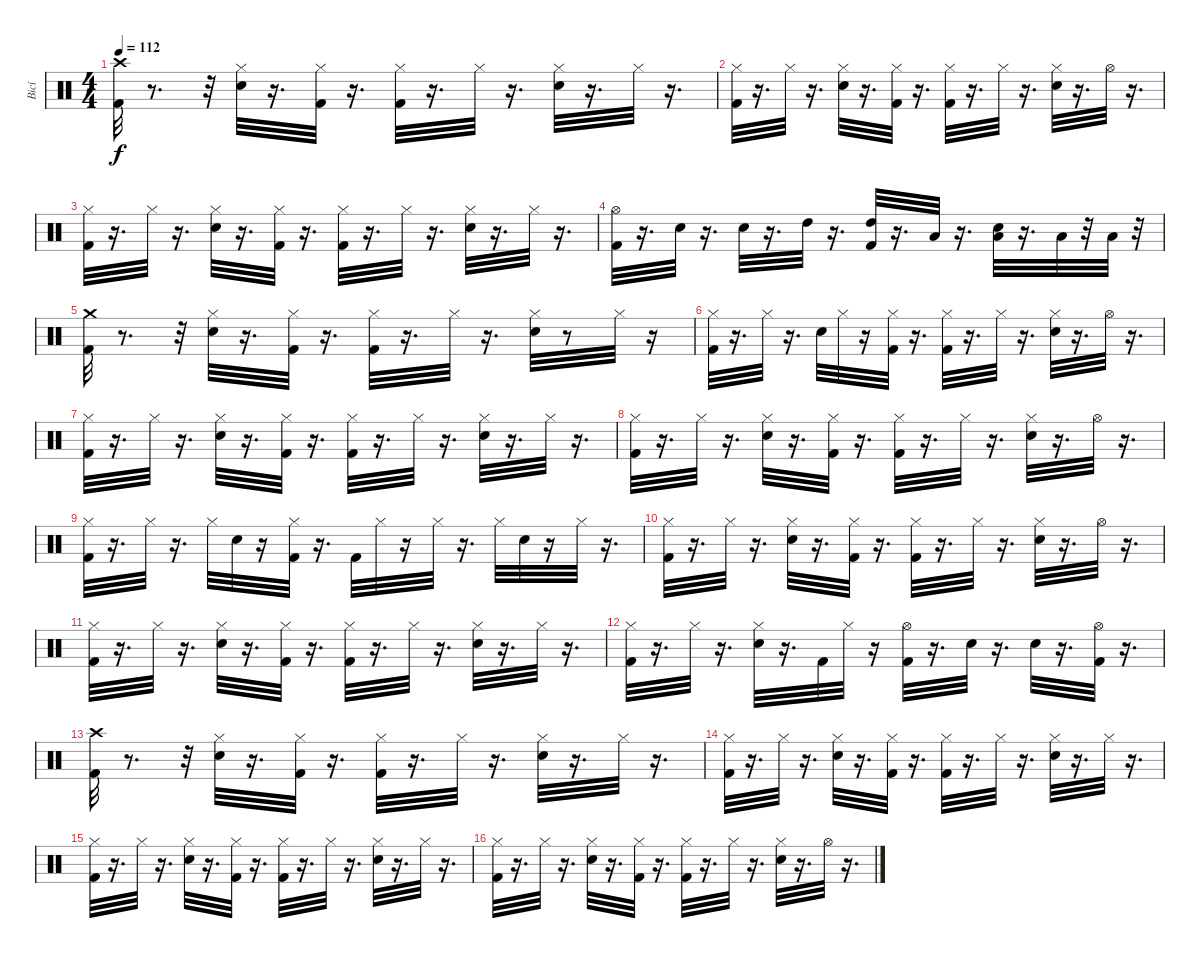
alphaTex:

\track ("Bicí" "Bicí") {instrument percussion}
\staff {score}
\articulation defaults
\ts (4 4)
\tempo 112
\clef neutral
\ks c
("Kick (hit) 2" "Crash high (hit)").32{dy f} r.8{d} r.32 ("Hi-Hat (closed)" "Snare (hit) 2").32 r.16{d} ("Kick (hit) 2" "Hi-Hat (closed)").32 r.16{d} ("Kick (hit) 2" "Hi-Hat (closed)").32 r.16{d} "Hi-Hat (closed)".32 r.16{d} ("Snare (hit) 2" "Hi-Hat (closed)").32 r.16{d} "Hi-Hat (closed)".32 r.16{d} |
("Kick (hit) 2" "Hi-Hat (closed)").32 r.16{d} "Hi-Hat (closed)".32 r.16{d} ("Snare (hit) 2" "Hi-Hat (closed)").32 r.16{d} ("Kick (hit) 2" "Hi-Hat (closed)").32 r.16{d} ("Kick (hit) 2" "Hi-Hat (closed)").32 r.16{d} "Hi-Hat (closed)".32 r.16{d} ("Snare (hit) 2" "Hi-Hat (closed)").32 r.16{d} "Hi-Hat (open)".32 r.16{d} |
("Kick (hit) 2" "Hi-Hat (closed)").32 r.16{d} "Hi-Hat (closed)".32 r.16{d} ("Snare (hit) 2" "Hi-Hat (closed)").32 r.16{d} ("Kick (hit) 2" "Hi-Hat (closed)").32 r.16{d} ("Kick (hit) 2" "Hi-Hat (closed)").32 r.16{d} "Hi-Hat (closed)".32 r.16{d} ("Hi-Hat (closed)" "Snare (hit) 2").32 r.16{d} "Hi-Hat (closed)".32 r.16{d} |
("Kick (hit) 2" "Hi-Hat (open)").32 r.16{d} "Snare (hit) 2".32 r.16{d} "Snare (hit) 2".32 r.16{d} "High Tom (hit)".32 r.16{d} ("Kick (hit) 2" "High Tom (hit)").32 r.16{d} "Low Tom (hit)".32 r.16{d} ("Snare (hit) 2" "Low Tom (hit)").32 r.16{d} "Low Floor Tom (hit)".32 r.32 "Low Floor Tom (hit)".32 r.32 |
("Kick (hit) 2" "Crash medium (hit)").32 r.8{d} r.32 ("Snare (hit) 2" "Hi-Hat (closed)").32 r.16{d} ("Kick (hit) 2" "Hi-Hat (closed)").32 r.16{d} ("Kick (hit) 2" "Hi-Hat (closed)").32 r.16{d} "Hi-Hat (closed)".32 r.16{d} ("Hi-Hat (closed)" "Snare (hit) 2").32 r.8 "Hi-Hat (closed)".32 r.16 |
("Kick (hit) 2" "Hi-Hat (closed)").32 r.16{d} "Hi-Hat (closed)".32 r.16{d} "Snare (hit) 2".32 "Hi-Hat (closed)".32 r.16 ("Kick (hit) 2" "Hi-Hat (closed)").32 r.16{d} ("Kick (hit) 2" "Hi-Hat (closed)").32 r.16{d} "Hi-Hat (closed)".32 r.16{d} ("Hi-Hat (closed)" "Snare (hit) 2").32 r.16{d} "Hi-Hat (open)".32 r.16{d} |
("Hi-Hat (closed)" "Kick (hit) 2").32 r.16{d} "Hi-Hat (closed)".32 r.16{d} ("Snare (hit) 2" "Hi-Hat (closed)").32 r.16{d} ("Kick (hit) 2" "Hi-Hat (closed)").32 r.16{d} ("Kick (hit) 2" "Hi-Hat (closed)").32 r.16{d} "Hi-Hat (closed)".32 r.16{d} ("Hi-Hat (closed)" "Snare (hit) 2").32 r.16{d} "Hi-Hat (closed)".32 r.16{d} |
("Kick (hit) 2" "Hi-Hat (closed)").32 r.16{d} "Hi-Hat (closed)".32 r.16{d} ("Snare (hit) 2" "Hi-Hat (closed)").32 r.16{d} ("Kick (hit) 2" "Hi-Hat (closed)").32 r.16{d} ("Kick (hit) 2" "Hi-Hat (closed)").32 r.16{d} "Hi-Hat (closed)".32 r.16{d} ("Snare (hit) 2" "Hi-Hat (closed)").32 r.16{d} "Hi-Hat (open)".32 r.16{d} |
("Kick (hit) 2" "Hi-Hat (closed)").32 r.16{d} "Hi-Hat (closed)".32 r.16{d} "Hi-Hat (closed)".32 "Snare (hit) 2".32 r.16 ("Kick (hit) 2" "Hi-Hat (closed)").32 r.16{d} "Kick (hit) 2".32 "Hi-Hat (closed)".32 r.16 "Hi-Hat (closed)".32 r.16{d} "Hi-Hat (closed)".32 "Snare (hit) 2".32 r.16 "Hi-Hat (closed)".32 r.16{d} |
("Kick (hit) 2" "Hi-Hat (closed)").32 r.16{d} "Hi-Hat (closed)".32 r.16{d} ("Snare (hit) 2" "Hi-Hat (closed)").32 r.16{d} ("Kick (hit) 2" "Hi-Hat (closed)").32 r.16{d} ("Kick (hit) 2" "Hi-Hat (closed)").32 r.16{d} "Hi-Hat (closed)".32 r.16{d} ("Hi-Hat (closed)" "Snare (hit) 2").32 r.16{d} "Hi-Hat (open)".32 r.16{d} |
("Kick (hit) 2" "Hi-Hat (closed)").32 r.16{d} "Hi-Hat (closed)".32 r.16{d} ("Snare (hit) 2" "Hi-Hat (closed)").32 r.16{d} ("Kick (hit) 2" "Hi-Hat (closed)").32 r.16{d} ("Kick (hit) 2" "Hi-Hat (closed)").32 r.16{d} "Hi-Hat (closed)".32 r.16{d} ("Snare (hit) 2" "Hi-Hat (closed)").32 r.16{d} "Hi-Hat (closed)".32 r.16{d} |
("Hi-Hat (closed)" "Kick (hit) 2").32 r.16{d} "Hi-Hat (closed)".32 r.16{d} ("Hi-Hat (closed)" "Snare (hit) 2").32 r.16{d} "Kick (hit) 2".32 "Hi-Hat (closed)".32 r.16 ("Kick (hit) 2" "Hi-Hat (open)").32 r.16{d} "Snare (hit) 2".32 r.16{d} "Snare (hit) 2".32 r.16{d} ("Kick (hit) 2" "Hi-Hat (open)").32 r.16{d} |
("Kick (hit) 2" "Crash high (hit)").32 r.8{d} r.32 ("Hi-Hat (closed)" "Snare (hit) 2").32 r.16{d} ("Kick (hit) 2" "Hi-Hat (closed)").32 r.16{d} ("Kick (hit) 2" "Hi-Hat (closed)").32 r.16{d} "Hi-Hat (closed)".32 r.16{d} ("Hi-Hat (closed)" "Snare (hit) 2").32 r.16{d} "Hi-Hat (closed)".32 r.16{d} |
("Kick (hit) 2" "Hi-Hat (closed)").32 r.16{d} "Hi-Hat (closed)".32 r.16{d} ("Hi-Hat (closed)" "Snare (hit) 2").32 r.16{d} ("Kick (hit) 2" "Hi-Hat (closed)").32 r.16{d} ("Kick (hit) 2" "Hi-Hat (closed)").32 r.16{d} "Hi-Hat (closed)".32 r.16{d} ("Hi-Hat (closed)" "Snare (hit) 2").32 r.16{d} "Hi-Hat (closed)".32 r.16{d} |
("Kick (hit) 2" "Hi-Hat (closed)").32 r.16{d} "Hi-Hat (closed)".32 r.16{d} ("Snare (hit) 2" "Hi-Hat (closed)").32 r.16{d} ("Kick (hit) 2" "Hi-Hat (closed)").32 r.16{d} ("Kick (hit) 2" "Hi-Hat (closed)").32 r.16{d} "Hi-Hat (closed)".32 r.16{d} ("Hi-Hat (closed)" "Snare (hit) 2").32 r.16{d} "Hi-Hat (closed)".32 r.16{d} |
("Kick (hit) 2" "Hi-Hat (closed)").32 r.16{d} "Hi-Hat (closed)".32 r.16{d} ("Hi-Hat (closed)" "Snare (hit) 2").32 r.16{d} ("Kick (hit) 2" "Hi-Hat (closed)").32 r.16{d} ("Kick (hit) 2" "Hi-Hat (closed)").32 r.16{d} "Hi-Hat (closed)".32 r.16{d} ("Snare (hit) 2" "Hi-Hat (closed)").32 r.16{d} "Hi-Hat (open)".32 r.16{d}
